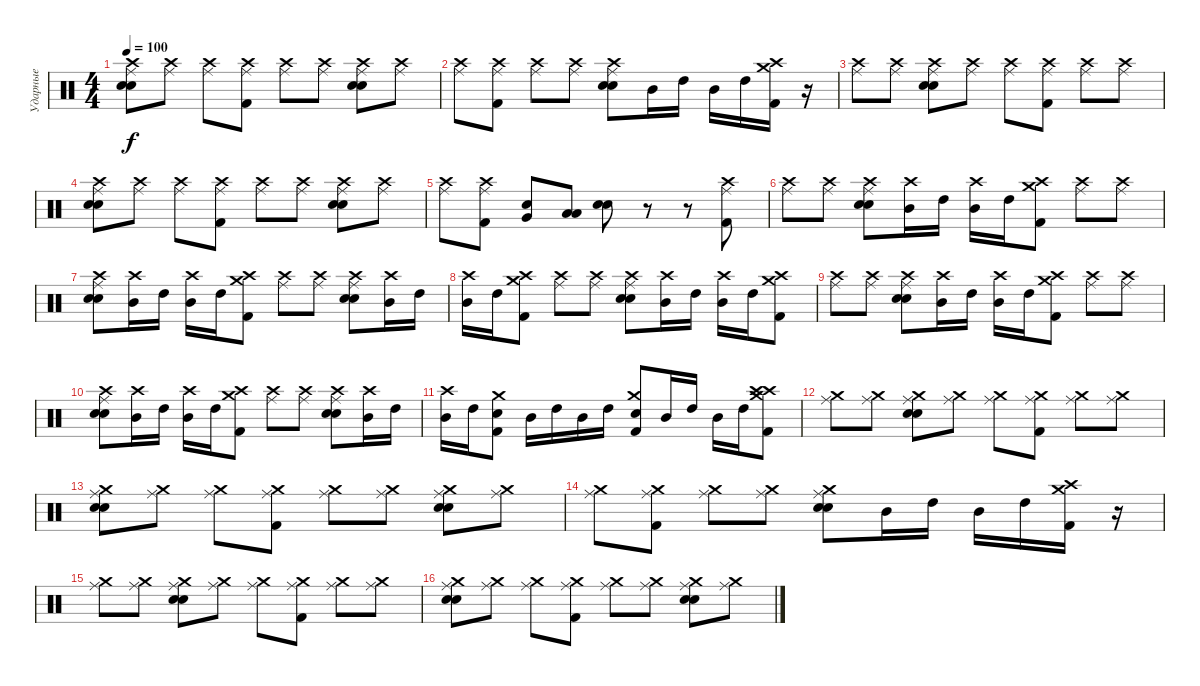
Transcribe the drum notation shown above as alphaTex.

\track ("Ударные" "Ударные") {instrument percussion}
\staff {score}
\articulation defaults
\ts (4 4)
\tempo 100
\clef neutral
\ks c
("Crash high (hit)" "Hand Clap (hit)" "Electric Snare (hit)" "Ride (middle)").8{dy f} ("Crash high (hit)" "Ride (middle)").8 ("Crash high (hit)" "Ride (middle)").8 ("Crash high (hit)" "Kick (hit) 2" "Ride (middle)").8 ("Crash high (hit)" "Ride (middle)").8 ("Crash high (hit)" "Ride (middle)").8 ("Crash high (hit)" "Hand Clap (hit)" "Electric Snare (hit)" "Ride (middle)").8 ("Crash high (hit)" "Ride (middle)").8 |
("Crash high (hit)" "Ride (middle)").8 ("Crash high (hit)" "Kick (hit) 2" "Ride (middle)").8 ("Crash high (hit)" "Ride (middle)").8 ("Crash high (hit)" "Ride (middle)").8 ("Crash high (hit)" "Hand Clap (hit)" "Electric Snare (hit)" "Ride (middle)").8 "Mid Tom (hit)".16 "High Tom (hit)".16 "Mid Tom (hit)".16 "High Tom (hit)".16 ("Crash medium (hit)" "Crash high (hit)" "Kick (hit) 2").16 r.16 |
("Crash high (hit)" "Ride (middle)").8 ("Crash high (hit)" "Ride (middle)").8 ("Crash high (hit)" "Hand Clap (hit)" "Electric Snare (hit)" "Ride (middle)").8 ("Crash high (hit)" "Ride (middle)").8 ("Crash high (hit)" "Ride (middle)").8 ("Crash high (hit)" "Kick (hit) 2" "Ride (middle)").8 ("Crash high (hit)" "Ride (middle)").8 ("Crash high (hit)" "Ride (middle)").8 |
("Crash high (hit)" "Hand Clap (hit)" "Electric Snare (hit)" "Ride (middle)").8 ("Crash high (hit)" "Ride (middle)").8 ("Crash high (hit)" "Ride (middle)").8 ("Crash high (hit)" "Kick (hit) 2" "Ride (middle)").8 ("Crash high (hit)" "Ride (middle)").8 ("Crash high (hit)" "Ride (middle)").8 ("Crash high (hit)" "Hand Clap (hit)" "Electric Snare (hit)" "Ride (middle)").8 ("Crash high (hit)" "Ride (middle)").8 |
("Crash high (hit)" "Ride (middle)").8 ("Crash high (hit)" "Kick (hit) 2" "Ride (middle)").8 ("Very Low Tom (hit)" "Electric Snare (hit)").8 ("Low Tom (hit)" "Low Floor Tom (hit)").8 ("Hand Clap (hit)" "Electric Snare (hit)").8 r.8 r.8 ("Crash high (hit)" "Kick (hit) 2" "Ride (middle)").8 |
("Crash high (hit)" "Ride (middle)").8 ("Crash high (hit)" "Ride (middle)").8 ("Crash high (hit)" "Hand Clap (hit)" "Electric Snare (hit)" "Ride (middle)").8 ("Crash high (hit)" "Mid Tom (hit)").16 "High Tom (hit)".16 ("Crash high (hit)" "Mid Tom (hit)").16 "High Tom (hit)".16 ("Crash medium (hit)" "Crash high (hit)" "Kick (hit) 2").8 ("Crash high (hit)" "Ride (middle)").8 ("Crash high (hit)" "Ride (middle)").8 |
("Crash high (hit)" "Hand Clap (hit)" "Electric Snare (hit)" "Ride (middle)").8 ("Crash high (hit)" "Mid Tom (hit)").16 "High Tom (hit)".16 ("Crash high (hit)" "Mid Tom (hit)").16 "High Tom (hit)".16 ("Crash medium (hit)" "Crash high (hit)" "Kick (hit) 2").8 ("Crash high (hit)" "Ride (middle)").8 ("Crash high (hit)" "Ride (middle)").8 ("Crash high (hit)" "Hand Clap (hit)" "Electric Snare (hit)" "Ride (middle)").8 ("Crash high (hit)" "Mid Tom (hit)").16 "High Tom (hit)".16 |
("Crash high (hit)" "Mid Tom (hit)").16 "High Tom (hit)".16 ("Crash medium (hit)" "Crash high (hit)" "Kick (hit) 2").8 ("Crash high (hit)" "Ride (middle)").8 ("Crash high (hit)" "Ride (middle)").8 ("Crash high (hit)" "Hand Clap (hit)" "Electric Snare (hit)" "Ride (middle)").8 ("Crash high (hit)" "Mid Tom (hit)").16 "High Tom (hit)".16 ("Crash high (hit)" "Mid Tom (hit)").16 "High Tom (hit)".16 ("Crash medium (hit)" "Crash high (hit)" "Kick (hit) 2").8 |
("Crash high (hit)" "Ride (middle)").8 ("Crash high (hit)" "Ride (middle)").8 ("Crash high (hit)" "Hand Clap (hit)" "Electric Snare (hit)" "Ride (middle)").8 ("Crash high (hit)" "Mid Tom (hit)").16 "High Tom (hit)".16 ("Crash high (hit)" "Mid Tom (hit)").16 "High Tom (hit)".16 ("Crash medium (hit)" "Crash high (hit)" "Kick (hit) 2").8 ("Crash high (hit)" "Ride (middle)").8 ("Crash high (hit)" "Ride (middle)").8 |
("Crash high (hit)" "Hand Clap (hit)" "Electric Snare (hit)" "Ride (middle)").8 ("Crash high (hit)" "Mid Tom (hit)").16 "High Tom (hit)".16 ("Crash high (hit)" "Mid Tom (hit)").16 "High Tom (hit)".16 ("Crash medium (hit)" "Crash high (hit)" "Kick (hit) 2").8 ("Crash high (hit)" "Ride (middle)").8 ("Crash high (hit)" "Ride (middle)").8 ("Crash high (hit)" "Hand Clap (hit)" "Electric Snare (hit)" "Ride (middle)").8 ("Crash high (hit)" "Mid Tom (hit)").16 "High Tom (hit)".16 |
("Crash high (hit)" "Mid Tom (hit)").16 "High Tom (hit)".16 ("Crash medium (hit)" "Snare (hit) 2" "Kick (hit) 2").8 "Mid Tom (hit)".16 "High Tom (hit)".16 "Mid Tom (hit)".16 "High Tom (hit)".16 ("Crash medium (hit)" "Snare (hit) 2" "Kick (hit) 2").8 "Mid Tom (hit)".16 "High Tom (hit)".16 "Mid Tom (hit)".16 "High Tom (hit)".16 ("Crash high (hit)" "Crash medium (hit)" "Crash high (hit)" "Kick (hit) 2").8 |
("Crash medium (hit)" "Ride (middle)").8 ("Crash medium (hit)" "Ride (middle)").8 ("Crash medium (hit)" "Hand Clap (hit)" "Electric Snare (hit)" "Ride (middle)").8 ("Crash medium (hit)" "Ride (middle)").8 ("Crash medium (hit)" "Ride (middle)").8 ("Crash medium (hit)" "Kick (hit) 2" "Ride (middle)").8 ("Crash medium (hit)" "Ride (middle)").8 ("Crash medium (hit)" "Ride (middle)").8 |
("Crash medium (hit)" "Hand Clap (hit)" "Electric Snare (hit)" "Ride (middle)").8 ("Crash medium (hit)" "Ride (middle)").8 ("Crash medium (hit)" "Ride (middle)").8 ("Crash medium (hit)" "Kick (hit) 2" "Ride (middle)").8 ("Crash medium (hit)" "Ride (middle)").8 ("Crash medium (hit)" "Ride (middle)").8 ("Crash medium (hit)" "Hand Clap (hit)" "Electric Snare (hit)" "Ride (middle)").8 ("Crash medium (hit)" "Ride (middle)").8 |
("Crash medium (hit)" "Ride (middle)").8 ("Crash medium (hit)" "Kick (hit) 2" "Ride (middle)").8 ("Crash medium (hit)" "Ride (middle)").8 ("Crash medium (hit)" "Ride (middle)").8 ("Crash medium (hit)" "Hand Clap (hit)" "Electric Snare (hit)" "Ride (middle)").8 "Mid Tom (hit)".16 "High Tom (hit)".16 "Mid Tom (hit)".16 "High Tom (hit)".16 ("Crash medium (hit)" "Crash high (hit)" "Kick (hit) 2").16 r.16 |
("Crash medium (hit)" "Ride (middle)").8 ("Crash medium (hit)" "Ride (middle)").8 ("Crash medium (hit)" "Hand Clap (hit)" "Electric Snare (hit)" "Ride (middle)").8 ("Crash medium (hit)" "Ride (middle)").8 ("Crash medium (hit)" "Ride (middle)").8 ("Crash medium (hit)" "Kick (hit) 2" "Ride (middle)").8 ("Crash medium (hit)" "Ride (middle)").8 ("Crash medium (hit)" "Ride (middle)").8 |
("Crash medium (hit)" "Hand Clap (hit)" "Electric Snare (hit)" "Ride (middle)").8 ("Crash medium (hit)" "Ride (middle)").8 ("Crash medium (hit)" "Ride (middle)").8 ("Crash medium (hit)" "Kick (hit) 2" "Ride (middle)").8 ("Crash medium (hit)" "Ride (middle)").8 ("Crash medium (hit)" "Ride (middle)").8 ("Crash medium (hit)" "Hand Clap (hit)" "Electric Snare (hit)" "Ride (middle)").8 ("Crash medium (hit)" "Ride (middle)").8
